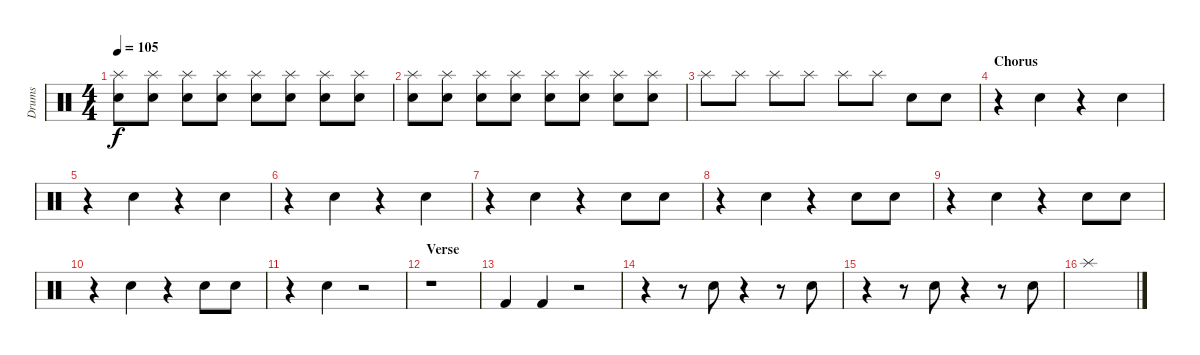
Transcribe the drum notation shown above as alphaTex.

\track ("Drums" "Drums") {instrument percussion}
\staff {score}
\articulation defaults
\ts (4 4)
\tempo 105
\clef neutral
\ks c
("Electric Snare (hit)" "Splash (hit)").8{dy f} ("Electric Snare (hit)" "Splash (hit)").8 ("Electric Snare (hit)" "Splash (hit)").8 ("Electric Snare (hit)" "Splash (hit)").8 ("Electric Snare (hit)" "Splash (hit)").8 ("Electric Snare (hit)" "Splash (hit)").8 ("Electric Snare (hit)" "Splash (hit)").8 ("Electric Snare (hit)" "Splash (hit)").8 |
("Electric Snare (hit)" "Splash (hit)").8 ("Electric Snare (hit)" "Splash (hit)").8 ("Electric Snare (hit)" "Splash (hit)").8 ("Electric Snare (hit)" "Splash (hit)").8 ("Electric Snare (hit)" "Splash (hit)").8 ("Electric Snare (hit)" "Splash (hit)").8 ("Electric Snare (hit)" "Splash (hit)").8 ("Electric Snare (hit)" "Splash (hit)").8 |
"Splash (hit)".8 "Splash (hit)".8 "Splash (hit)".8 "Splash (hit)".8 "Splash (hit)".8 "Splash (hit)".8 "Electric Snare (hit)".8 "Electric Snare (hit)".8 |
\section ("" "Chorus")
r.4 "Electric Snare (hit)".4 r.4 "Electric Snare (hit)".4 |
r.4 "Electric Snare (hit)".4 r.4 "Electric Snare (hit)".4 |
r.4 "Electric Snare (hit)".4 r.4 "Electric Snare (hit)".4 |
r.4 "Electric Snare (hit)".4 r.4 "Electric Snare (hit)".8 "Electric Snare (hit)".8 |
r.4 "Electric Snare (hit)".4 r.4 "Electric Snare (hit)".8 "Electric Snare (hit)".8 |
r.4 "Electric Snare (hit)".4 r.4 "Electric Snare (hit)".8 "Electric Snare (hit)".8 |
r.4 "Electric Snare (hit)".4 r.4 "Electric Snare (hit)".8 "Electric Snare (hit)".8 |
r.4 "Electric Snare (hit)".4 r.2 |
\section ("" "Verse")
r.1 |
"Kick (hit) 2".4 "Kick (hit) 2".4 r.2 |
r.4 r.8 "Electric Snare (hit)".8 r.4 r.8 "Electric Snare (hit)".8 |
r.4 r.8 "Electric Snare (hit)".8 r.4 r.8 "Electric Snare (hit)".8 |
"Splash (hit)".1
